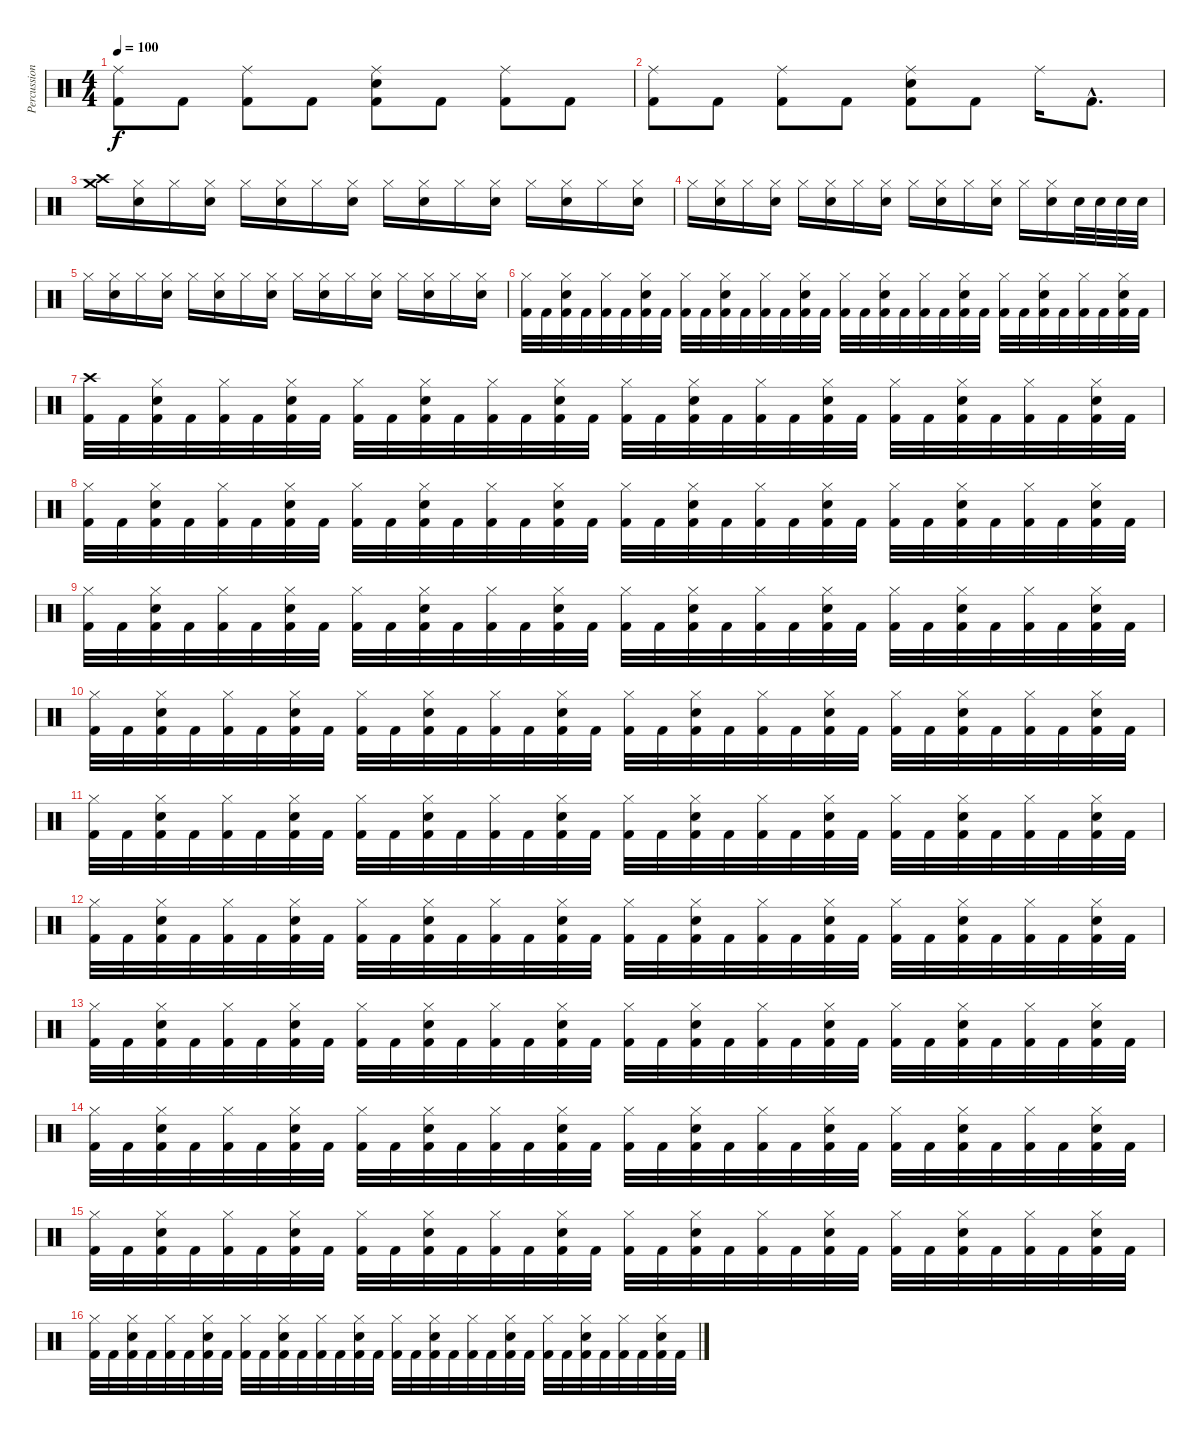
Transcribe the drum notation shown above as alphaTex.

\track ("Percussion" "Percussion") {instrument percussion}
\staff {score}
\articulation defaults
\ts (4 4)
\tempo 100
\clef neutral
\ks c
("Ride (middle)" "Kick (hit) 2").8{dy f} "Kick (hit) 2".8 ("Ride (middle)" "Kick (hit) 2").8 "Kick (hit) 2".8 ("Ride (middle)" "Snare (hit) 2" "Kick (hit) 2").8 "Kick (hit) 2".8 ("Ride (middle)" "Kick (hit) 2").8 "Kick (hit) 2".8 |
("Ride (middle)" "Kick (hit) 2").8 "Kick (hit) 2".8 ("Ride (middle)" "Kick (hit) 2").8 "Kick (hit) 2".8 ("Ride (middle)" "Snare (hit) 2" "Kick (hit) 2").8 "Kick (hit) 2".8 "Ride (middle)".16 "Kick (hit) 2"{hac}.8{d} |
("Crash medium (hit)" "Crash high (hit)").16 ("Hi-Hat (closed)" "Snare (hit) 2").16 "Hi-Hat (closed)".16 ("Hi-Hat (closed)" "Snare (hit) 2").16 "Hi-Hat (closed)".16 ("Hi-Hat (closed)" "Snare (hit) 2").16 "Hi-Hat (closed)".16 ("Hi-Hat (closed)" "Snare (hit) 2").16 "Hi-Hat (closed)".16 ("Hi-Hat (closed)" "Snare (hit) 2").16 "Hi-Hat (closed)".16 ("Hi-Hat (closed)" "Snare (hit) 2").16 "Hi-Hat (closed)".16 ("Hi-Hat (closed)" "Snare (hit) 2").16 "Hi-Hat (closed)".16 ("Hi-Hat (closed)" "Snare (hit) 2").16 |
"Hi-Hat (closed)".16 ("Hi-Hat (closed)" "Snare (hit) 2").16 "Hi-Hat (closed)".16 ("Hi-Hat (closed)" "Snare (hit) 2").16 "Hi-Hat (closed)".16 ("Hi-Hat (closed)" "Snare (hit) 2").16 "Hi-Hat (closed)".16 ("Hi-Hat (closed)" "Snare (hit) 2").16 "Hi-Hat (closed)".16 ("Hi-Hat (closed)" "Snare (hit) 2").16 "Hi-Hat (closed)".16 ("Hi-Hat (closed)" "Snare (hit) 2").16 "Hi-Hat (closed)".16 ("Hi-Hat (closed)" "Snare (hit) 2").16 "Snare (hit) 2".32 "Snare (hit) 2".32 "Snare (hit) 2".32 "Snare (hit) 2".32 |
"Hi-Hat (closed)".16 ("Hi-Hat (closed)" "Snare (hit) 2").16 "Hi-Hat (closed)".16 ("Hi-Hat (closed)" "Snare (hit) 2").16 "Hi-Hat (closed)".16 ("Hi-Hat (closed)" "Snare (hit) 2").16 "Hi-Hat (closed)".16 ("Hi-Hat (closed)" "Snare (hit) 2").16 "Hi-Hat (closed)".16 ("Hi-Hat (closed)" "Snare (hit) 2").16 "Hi-Hat (closed)".16 ("Hi-Hat (closed)" "Snare (hit) 2").16 "Hi-Hat (closed)".16 ("Hi-Hat (closed)" "Snare (hit) 2").16 "Hi-Hat (closed)".16 ("Hi-Hat (closed)" "Snare (hit) 2").16 |
("Hi-Hat (closed)" "Kick (hit) 2").32 "Kick (hit) 2".32 ("Hi-Hat (closed)" "Snare (hit) 2" "Kick (hit) 2").32 "Kick (hit) 2".32 ("Hi-Hat (closed)" "Kick (hit) 2").32 "Kick (hit) 2".32 ("Hi-Hat (closed)" "Snare (hit) 2" "Kick (hit) 2").32 "Kick (hit) 2".32 ("Hi-Hat (closed)" "Kick (hit) 2").32 "Kick (hit) 2".32 ("Hi-Hat (closed)" "Snare (hit) 2" "Kick (hit) 2").32 "Kick (hit) 2".32 ("Hi-Hat (closed)" "Kick (hit) 2").32 "Kick (hit) 2".32 ("Hi-Hat (closed)" "Snare (hit) 2" "Kick (hit) 2").32 "Kick (hit) 2".32 ("Hi-Hat (closed)" "Kick (hit) 2").32 "Kick (hit) 2".32 ("Hi-Hat (closed)" "Snare (hit) 2" "Kick (hit) 2").32 "Kick (hit) 2".32 ("Hi-Hat (closed)" "Kick (hit) 2").32 "Kick (hit) 2".32 ("Hi-Hat (closed)" "Snare (hit) 2" "Kick (hit) 2").32 "Kick (hit) 2".32 ("Hi-Hat (closed)" "Kick (hit) 2").32 "Kick (hit) 2".32 ("Hi-Hat (closed)" "Snare (hit) 2" "Kick (hit) 2").32 "Kick (hit) 2".32 ("Hi-Hat (closed)" "Kick (hit) 2").32 "Kick (hit) 2".32 ("Hi-Hat (closed)" "Snare (hit) 2" "Kick (hit) 2").32 "Kick (hit) 2".32 |
("Crash high (hit)" "Kick (hit) 2").32 "Kick (hit) 2".32 ("Hi-Hat (closed)" "Snare (hit) 2" "Kick (hit) 2").32 "Kick (hit) 2".32 ("Hi-Hat (closed)" "Kick (hit) 2").32 "Kick (hit) 2".32 ("Hi-Hat (closed)" "Snare (hit) 2" "Kick (hit) 2").32 "Kick (hit) 2".32 ("Hi-Hat (closed)" "Kick (hit) 2").32 "Kick (hit) 2".32 ("Hi-Hat (closed)" "Snare (hit) 2" "Kick (hit) 2").32 "Kick (hit) 2".32 ("Hi-Hat (closed)" "Kick (hit) 2").32 "Kick (hit) 2".32 ("Hi-Hat (closed)" "Snare (hit) 2" "Kick (hit) 2").32 "Kick (hit) 2".32 ("Hi-Hat (closed)" "Kick (hit) 2").32 "Kick (hit) 2".32 ("Hi-Hat (closed)" "Snare (hit) 2" "Kick (hit) 2").32 "Kick (hit) 2".32 ("Hi-Hat (closed)" "Kick (hit) 2").32 "Kick (hit) 2".32 ("Hi-Hat (closed)" "Snare (hit) 2" "Kick (hit) 2").32 "Kick (hit) 2".32 ("Hi-Hat (closed)" "Kick (hit) 2").32 "Kick (hit) 2".32 ("Hi-Hat (closed)" "Snare (hit) 2" "Kick (hit) 2").32 "Kick (hit) 2".32 ("Hi-Hat (closed)" "Kick (hit) 2").32 "Kick (hit) 2".32 ("Hi-Hat (closed)" "Snare (hit) 2" "Kick (hit) 2").32 "Kick (hit) 2".32 |
("Hi-Hat (closed)" "Kick (hit) 2").32 "Kick (hit) 2".32 ("Hi-Hat (closed)" "Snare (hit) 2" "Kick (hit) 2").32 "Kick (hit) 2".32 ("Hi-Hat (closed)" "Kick (hit) 2").32 "Kick (hit) 2".32 ("Hi-Hat (closed)" "Snare (hit) 2" "Kick (hit) 2").32 "Kick (hit) 2".32 ("Hi-Hat (closed)" "Kick (hit) 2").32 "Kick (hit) 2".32 ("Hi-Hat (closed)" "Snare (hit) 2" "Kick (hit) 2").32 "Kick (hit) 2".32 ("Hi-Hat (closed)" "Kick (hit) 2").32 "Kick (hit) 2".32 ("Hi-Hat (closed)" "Snare (hit) 2" "Kick (hit) 2").32 "Kick (hit) 2".32 ("Hi-Hat (closed)" "Kick (hit) 2").32 "Kick (hit) 2".32 ("Hi-Hat (closed)" "Snare (hit) 2" "Kick (hit) 2").32 "Kick (hit) 2".32 ("Hi-Hat (closed)" "Kick (hit) 2").32 "Kick (hit) 2".32 ("Hi-Hat (closed)" "Snare (hit) 2" "Kick (hit) 2").32 "Kick (hit) 2".32 ("Hi-Hat (closed)" "Kick (hit) 2").32 "Kick (hit) 2".32 ("Hi-Hat (closed)" "Snare (hit) 2" "Kick (hit) 2").32 "Kick (hit) 2".32 ("Hi-Hat (closed)" "Kick (hit) 2").32 "Kick (hit) 2".32 ("Hi-Hat (closed)" "Snare (hit) 2" "Kick (hit) 2").32 "Kick (hit) 2".32 |
("Hi-Hat (closed)" "Kick (hit) 2").32 "Kick (hit) 2".32 ("Hi-Hat (closed)" "Snare (hit) 2" "Kick (hit) 2").32 "Kick (hit) 2".32 ("Hi-Hat (closed)" "Kick (hit) 2").32 "Kick (hit) 2".32 ("Hi-Hat (closed)" "Snare (hit) 2" "Kick (hit) 2").32 "Kick (hit) 2".32 ("Hi-Hat (closed)" "Kick (hit) 2").32 "Kick (hit) 2".32 ("Hi-Hat (closed)" "Snare (hit) 2" "Kick (hit) 2").32 "Kick (hit) 2".32 ("Hi-Hat (closed)" "Kick (hit) 2").32 "Kick (hit) 2".32 ("Hi-Hat (closed)" "Snare (hit) 2" "Kick (hit) 2").32 "Kick (hit) 2".32 ("Hi-Hat (closed)" "Kick (hit) 2").32 "Kick (hit) 2".32 ("Hi-Hat (closed)" "Snare (hit) 2" "Kick (hit) 2").32 "Kick (hit) 2".32 ("Hi-Hat (closed)" "Kick (hit) 2").32 "Kick (hit) 2".32 ("Hi-Hat (closed)" "Snare (hit) 2" "Kick (hit) 2").32 "Kick (hit) 2".32 ("Hi-Hat (closed)" "Kick (hit) 2").32 "Kick (hit) 2".32 ("Hi-Hat (closed)" "Snare (hit) 2" "Kick (hit) 2").32 "Kick (hit) 2".32 ("Hi-Hat (closed)" "Kick (hit) 2").32 "Kick (hit) 2".32 ("Hi-Hat (closed)" "Snare (hit) 2" "Kick (hit) 2").32 "Kick (hit) 2".32 |
("Hi-Hat (closed)" "Kick (hit) 2").32 "Kick (hit) 2".32 ("Hi-Hat (closed)" "Snare (hit) 2" "Kick (hit) 2").32 "Kick (hit) 2".32 ("Hi-Hat (closed)" "Kick (hit) 2").32 "Kick (hit) 2".32 ("Hi-Hat (closed)" "Snare (hit) 2" "Kick (hit) 2").32 "Kick (hit) 2".32 ("Hi-Hat (closed)" "Kick (hit) 2").32 "Kick (hit) 2".32 ("Hi-Hat (closed)" "Snare (hit) 2" "Kick (hit) 2").32 "Kick (hit) 2".32 ("Hi-Hat (closed)" "Kick (hit) 2").32 "Kick (hit) 2".32 ("Hi-Hat (closed)" "Snare (hit) 2" "Kick (hit) 2").32 "Kick (hit) 2".32 ("Hi-Hat (closed)" "Kick (hit) 2").32 "Kick (hit) 2".32 ("Hi-Hat (closed)" "Snare (hit) 2" "Kick (hit) 2").32 "Kick (hit) 2".32 ("Hi-Hat (closed)" "Kick (hit) 2").32 "Kick (hit) 2".32 ("Hi-Hat (closed)" "Snare (hit) 2" "Kick (hit) 2").32 "Kick (hit) 2".32 ("Hi-Hat (closed)" "Kick (hit) 2").32 "Kick (hit) 2".32 ("Hi-Hat (closed)" "Snare (hit) 2" "Kick (hit) 2").32 "Kick (hit) 2".32 ("Hi-Hat (closed)" "Kick (hit) 2").32 "Kick (hit) 2".32 ("Hi-Hat (closed)" "Snare (hit) 2" "Kick (hit) 2").32 "Kick (hit) 2".32 |
("Hi-Hat (closed)" "Kick (hit) 2").32 "Kick (hit) 2".32 ("Hi-Hat (closed)" "Snare (hit) 2" "Kick (hit) 2").32 "Kick (hit) 2".32 ("Hi-Hat (closed)" "Kick (hit) 2").32 "Kick (hit) 2".32 ("Hi-Hat (closed)" "Snare (hit) 2" "Kick (hit) 2").32 "Kick (hit) 2".32 ("Hi-Hat (closed)" "Kick (hit) 2").32 "Kick (hit) 2".32 ("Hi-Hat (closed)" "Snare (hit) 2" "Kick (hit) 2").32 "Kick (hit) 2".32 ("Hi-Hat (closed)" "Kick (hit) 2").32 "Kick (hit) 2".32 ("Hi-Hat (closed)" "Snare (hit) 2" "Kick (hit) 2").32 "Kick (hit) 2".32 ("Hi-Hat (closed)" "Kick (hit) 2").32 "Kick (hit) 2".32 ("Hi-Hat (closed)" "Snare (hit) 2" "Kick (hit) 2").32 "Kick (hit) 2".32 ("Hi-Hat (closed)" "Kick (hit) 2").32 "Kick (hit) 2".32 ("Hi-Hat (closed)" "Snare (hit) 2" "Kick (hit) 2").32 "Kick (hit) 2".32 ("Hi-Hat (closed)" "Kick (hit) 2").32 "Kick (hit) 2".32 ("Hi-Hat (closed)" "Snare (hit) 2" "Kick (hit) 2").32 "Kick (hit) 2".32 ("Hi-Hat (closed)" "Kick (hit) 2").32 "Kick (hit) 2".32 ("Hi-Hat (closed)" "Snare (hit) 2" "Kick (hit) 2").32 "Kick (hit) 2".32 |
("Hi-Hat (closed)" "Kick (hit) 2").32 "Kick (hit) 2".32 ("Hi-Hat (closed)" "Snare (hit) 2" "Kick (hit) 2").32 "Kick (hit) 2".32 ("Hi-Hat (closed)" "Kick (hit) 2").32 "Kick (hit) 2".32 ("Hi-Hat (closed)" "Snare (hit) 2" "Kick (hit) 2").32 "Kick (hit) 2".32 ("Hi-Hat (closed)" "Kick (hit) 2").32 "Kick (hit) 2".32 ("Hi-Hat (closed)" "Snare (hit) 2" "Kick (hit) 2").32 "Kick (hit) 2".32 ("Hi-Hat (closed)" "Kick (hit) 2").32 "Kick (hit) 2".32 ("Hi-Hat (closed)" "Snare (hit) 2" "Kick (hit) 2").32 "Kick (hit) 2".32 ("Hi-Hat (closed)" "Kick (hit) 2").32 "Kick (hit) 2".32 ("Hi-Hat (closed)" "Snare (hit) 2" "Kick (hit) 2").32 "Kick (hit) 2".32 ("Hi-Hat (closed)" "Kick (hit) 2").32 "Kick (hit) 2".32 ("Hi-Hat (closed)" "Snare (hit) 2" "Kick (hit) 2").32 "Kick (hit) 2".32 ("Hi-Hat (closed)" "Kick (hit) 2").32 "Kick (hit) 2".32 ("Hi-Hat (closed)" "Snare (hit) 2" "Kick (hit) 2").32 "Kick (hit) 2".32 ("Hi-Hat (closed)" "Kick (hit) 2").32 "Kick (hit) 2".32 ("Hi-Hat (closed)" "Snare (hit) 2" "Kick (hit) 2").32 "Kick (hit) 2".32 |
("Hi-Hat (closed)" "Kick (hit) 2").32 "Kick (hit) 2".32 ("Hi-Hat (closed)" "Snare (hit) 2" "Kick (hit) 2").32 "Kick (hit) 2".32 ("Hi-Hat (closed)" "Kick (hit) 2").32 "Kick (hit) 2".32 ("Hi-Hat (closed)" "Snare (hit) 2" "Kick (hit) 2").32 "Kick (hit) 2".32 ("Hi-Hat (closed)" "Kick (hit) 2").32 "Kick (hit) 2".32 ("Hi-Hat (closed)" "Snare (hit) 2" "Kick (hit) 2").32 "Kick (hit) 2".32 ("Hi-Hat (closed)" "Kick (hit) 2").32 "Kick (hit) 2".32 ("Hi-Hat (closed)" "Snare (hit) 2" "Kick (hit) 2").32 "Kick (hit) 2".32 ("Hi-Hat (closed)" "Kick (hit) 2").32 "Kick (hit) 2".32 ("Hi-Hat (closed)" "Snare (hit) 2" "Kick (hit) 2").32 "Kick (hit) 2".32 ("Hi-Hat (closed)" "Kick (hit) 2").32 "Kick (hit) 2".32 ("Hi-Hat (closed)" "Snare (hit) 2" "Kick (hit) 2").32 "Kick (hit) 2".32 ("Hi-Hat (closed)" "Kick (hit) 2").32 "Kick (hit) 2".32 ("Hi-Hat (closed)" "Snare (hit) 2" "Kick (hit) 2").32 "Kick (hit) 2".32 ("Hi-Hat (closed)" "Kick (hit) 2").32 "Kick (hit) 2".32 ("Hi-Hat (closed)" "Snare (hit) 2" "Kick (hit) 2").32 "Kick (hit) 2".32 |
("Hi-Hat (closed)" "Kick (hit) 2").32 "Kick (hit) 2".32 ("Hi-Hat (closed)" "Snare (hit) 2" "Kick (hit) 2").32 "Kick (hit) 2".32 ("Hi-Hat (closed)" "Kick (hit) 2").32 "Kick (hit) 2".32 ("Hi-Hat (closed)" "Snare (hit) 2" "Kick (hit) 2").32 "Kick (hit) 2".32 ("Hi-Hat (closed)" "Kick (hit) 2").32 "Kick (hit) 2".32 ("Hi-Hat (closed)" "Snare (hit) 2" "Kick (hit) 2").32 "Kick (hit) 2".32 ("Hi-Hat (closed)" "Kick (hit) 2").32 "Kick (hit) 2".32 ("Hi-Hat (closed)" "Snare (hit) 2" "Kick (hit) 2").32 "Kick (hit) 2".32 ("Hi-Hat (closed)" "Kick (hit) 2").32 "Kick (hit) 2".32 ("Hi-Hat (closed)" "Snare (hit) 2" "Kick (hit) 2").32 "Kick (hit) 2".32 ("Hi-Hat (closed)" "Kick (hit) 2").32 "Kick (hit) 2".32 ("Hi-Hat (closed)" "Snare (hit) 2" "Kick (hit) 2").32 "Kick (hit) 2".32 ("Hi-Hat (closed)" "Kick (hit) 2").32 "Kick (hit) 2".32 ("Hi-Hat (closed)" "Snare (hit) 2" "Kick (hit) 2").32 "Kick (hit) 2".32 ("Hi-Hat (closed)" "Kick (hit) 2").32 "Kick (hit) 2".32 ("Hi-Hat (closed)" "Snare (hit) 2" "Kick (hit) 2").32 "Kick (hit) 2".32 |
("Hi-Hat (closed)" "Kick (hit) 2").32 "Kick (hit) 2".32 ("Hi-Hat (closed)" "Snare (hit) 2" "Kick (hit) 2").32 "Kick (hit) 2".32 ("Hi-Hat (closed)" "Kick (hit) 2").32 "Kick (hit) 2".32 ("Hi-Hat (closed)" "Snare (hit) 2" "Kick (hit) 2").32 "Kick (hit) 2".32 ("Hi-Hat (closed)" "Kick (hit) 2").32 "Kick (hit) 2".32 ("Hi-Hat (closed)" "Snare (hit) 2" "Kick (hit) 2").32 "Kick (hit) 2".32 ("Hi-Hat (closed)" "Kick (hit) 2").32 "Kick (hit) 2".32 ("Hi-Hat (closed)" "Snare (hit) 2" "Kick (hit) 2").32 "Kick (hit) 2".32 ("Hi-Hat (closed)" "Kick (hit) 2").32 "Kick (hit) 2".32 ("Hi-Hat (closed)" "Snare (hit) 2" "Kick (hit) 2").32 "Kick (hit) 2".32 ("Hi-Hat (closed)" "Kick (hit) 2").32 "Kick (hit) 2".32 ("Hi-Hat (closed)" "Snare (hit) 2" "Kick (hit) 2").32 "Kick (hit) 2".32 ("Hi-Hat (closed)" "Kick (hit) 2").32 "Kick (hit) 2".32 ("Hi-Hat (closed)" "Snare (hit) 2" "Kick (hit) 2").32 "Kick (hit) 2".32 ("Hi-Hat (closed)" "Kick (hit) 2").32 "Kick (hit) 2".32 ("Hi-Hat (closed)" "Snare (hit) 2" "Kick (hit) 2").32 "Kick (hit) 2".32 |
("Hi-Hat (closed)" "Kick (hit) 2").32 "Kick (hit) 2".32 ("Hi-Hat (closed)" "Snare (hit) 2" "Kick (hit) 2").32 "Kick (hit) 2".32 ("Hi-Hat (closed)" "Kick (hit) 2").32 "Kick (hit) 2".32 ("Hi-Hat (closed)" "Snare (hit) 2" "Kick (hit) 2").32 "Kick (hit) 2".32 ("Hi-Hat (closed)" "Kick (hit) 2").32 "Kick (hit) 2".32 ("Hi-Hat (closed)" "Snare (hit) 2" "Kick (hit) 2").32 "Kick (hit) 2".32 ("Hi-Hat (closed)" "Kick (hit) 2").32 "Kick (hit) 2".32 ("Hi-Hat (closed)" "Snare (hit) 2" "Kick (hit) 2").32 "Kick (hit) 2".32 ("Hi-Hat (closed)" "Kick (hit) 2").32 "Kick (hit) 2".32 ("Hi-Hat (closed)" "Snare (hit) 2" "Kick (hit) 2").32 "Kick (hit) 2".32 ("Hi-Hat (closed)" "Kick (hit) 2").32 "Kick (hit) 2".32 ("Hi-Hat (closed)" "Snare (hit) 2" "Kick (hit) 2").32 "Kick (hit) 2".32 ("Hi-Hat (closed)" "Kick (hit) 2").32 "Kick (hit) 2".32 ("Hi-Hat (closed)" "Snare (hit) 2" "Kick (hit) 2").32 "Kick (hit) 2".32 ("Hi-Hat (closed)" "Kick (hit) 2").32 "Kick (hit) 2".32 ("Hi-Hat (closed)" "Snare (hit) 2" "Kick (hit) 2").32 "Kick (hit) 2".32
